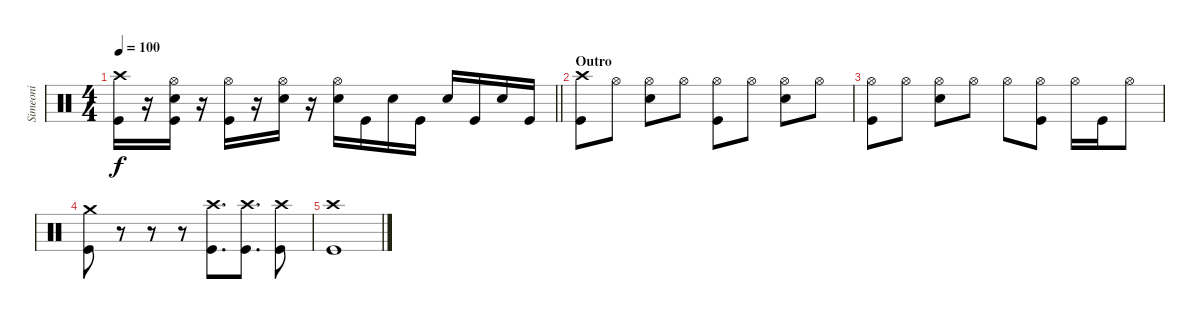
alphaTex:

\track ("Simeoni" "Simeoni") {instrument percussion}
\staff {score}
\articulation defaults
\ts (4 4)
\tempo 100
\clef neutral
\barLineRight lightlight
\ks c
("Crash high (hit)" "Kick (hit)").16{dy f} r.16 ("Hi-Hat (open)" "Electric Snare (hit)" "Kick (hit)").16 r.16 ("Hi-Hat (open)" "Kick (hit)").16 r.16 ("Hi-Hat (open)" "Electric Snare (hit)").16 r.16 ("Hi-Hat (open)" "Electric Snare (hit)").16 "Kick (hit)".16 "Electric Snare (hit)".16 "Kick (hit)".16 "Electric Snare (hit)".16 "Kick (hit)".16 "Electric Snare (hit)".16 "Kick (hit)".16 |
\section ("" "Outro")
("Crash high (hit)" "Kick (hit)").8 "Hi-Hat (open)".8 ("Hi-Hat (open)" "Electric Snare (hit)").8 "Hi-Hat (open)".8 ("Hi-Hat (open)" "Kick (hit)").8 "Hi-Hat (open)".8 ("Hi-Hat (open)" "Electric Snare (hit)").8 "Hi-Hat (open)".8 |
("Hi-Hat (open)" "Kick (hit)").8 "Hi-Hat (open)".8 ("Hi-Hat (open)" "Electric Snare (hit)").8 "Hi-Hat (open)".8 "Hi-Hat (open)".8 ("Hi-Hat (open)" "Kick (hit)").8 "Hi-Hat (open)".16 "Kick (hit)".16 "Hi-Hat (open)".8 |
("Crash medium (hit)" "Kick (hit)").8 r.8 r.8 r.8 ("Crash high (hit)" "Kick (hit)").8{d} ("Crash high (hit)" "Kick (hit)").8{d} ("Crash high (hit)" "Kick (hit)").8 |
("Crash high (hit)" "Kick (hit)").1
